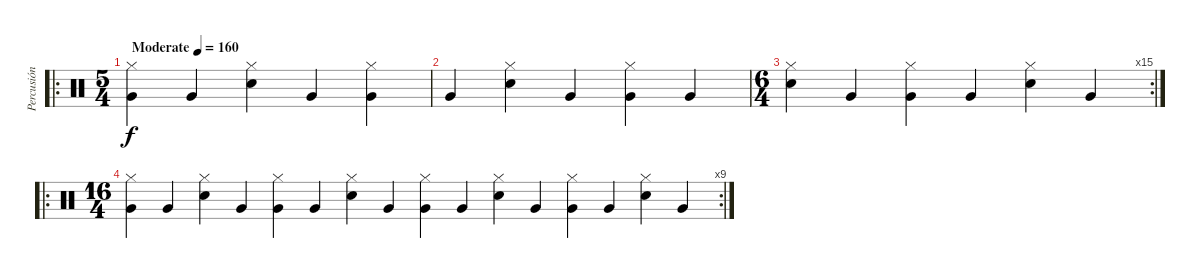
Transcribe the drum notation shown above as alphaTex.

\track ("Percusión" "Percusión") {instrument percussion}
\staff {score}
\articulation defaults
\ro
\ts (5 4)
\tempo (160 "Moderate")
\clef neutral
\ks c
("Very Low Tom (hit)" "Hi-Hat (closed)").4{dy f} "Very Low Tom (hit)".4 ("Electric Snare (hit)" "Hi-Hat (closed)").4 "Very Low Tom (hit)".4 ("Very Low Tom (hit)" "Hi-Hat (closed)").4 |
"Very Low Tom (hit)".4 ("Electric Snare (hit)" "Hi-Hat (closed)").4 "Very Low Tom (hit)".4 ("Very Low Tom (hit)" "Hi-Hat (closed)").4 "Very Low Tom (hit)".4 |
\rc 15
\ts (6 4)
("Electric Snare (hit)" "Hi-Hat (closed)").4 "Very Low Tom (hit)".4 ("Very Low Tom (hit)" "Hi-Hat (closed)").4 "Very Low Tom (hit)".4 ("Electric Snare (hit)" "Hi-Hat (closed)").4 "Very Low Tom (hit)".4 |
\ro
\rc 9
\ts (16 4)
("Very Low Tom (hit)" "Hi-Hat (closed)").4 "Very Low Tom (hit)".4 ("Electric Snare (hit)" "Hi-Hat (closed)").4 "Very Low Tom (hit)".4 ("Very Low Tom (hit)" "Hi-Hat (closed)").4 "Very Low Tom (hit)".4 ("Electric Snare (hit)" "Hi-Hat (closed)").4 "Very Low Tom (hit)".4 ("Very Low Tom (hit)" "Hi-Hat (closed)").4 "Very Low Tom (hit)".4 ("Electric Snare (hit)" "Hi-Hat (closed)").4 "Very Low Tom (hit)".4 ("Very Low Tom (hit)" "Hi-Hat (closed)").4 "Very Low Tom (hit)".4 ("Electric Snare (hit)" "Hi-Hat (closed)").4 "Very Low Tom (hit)".4
